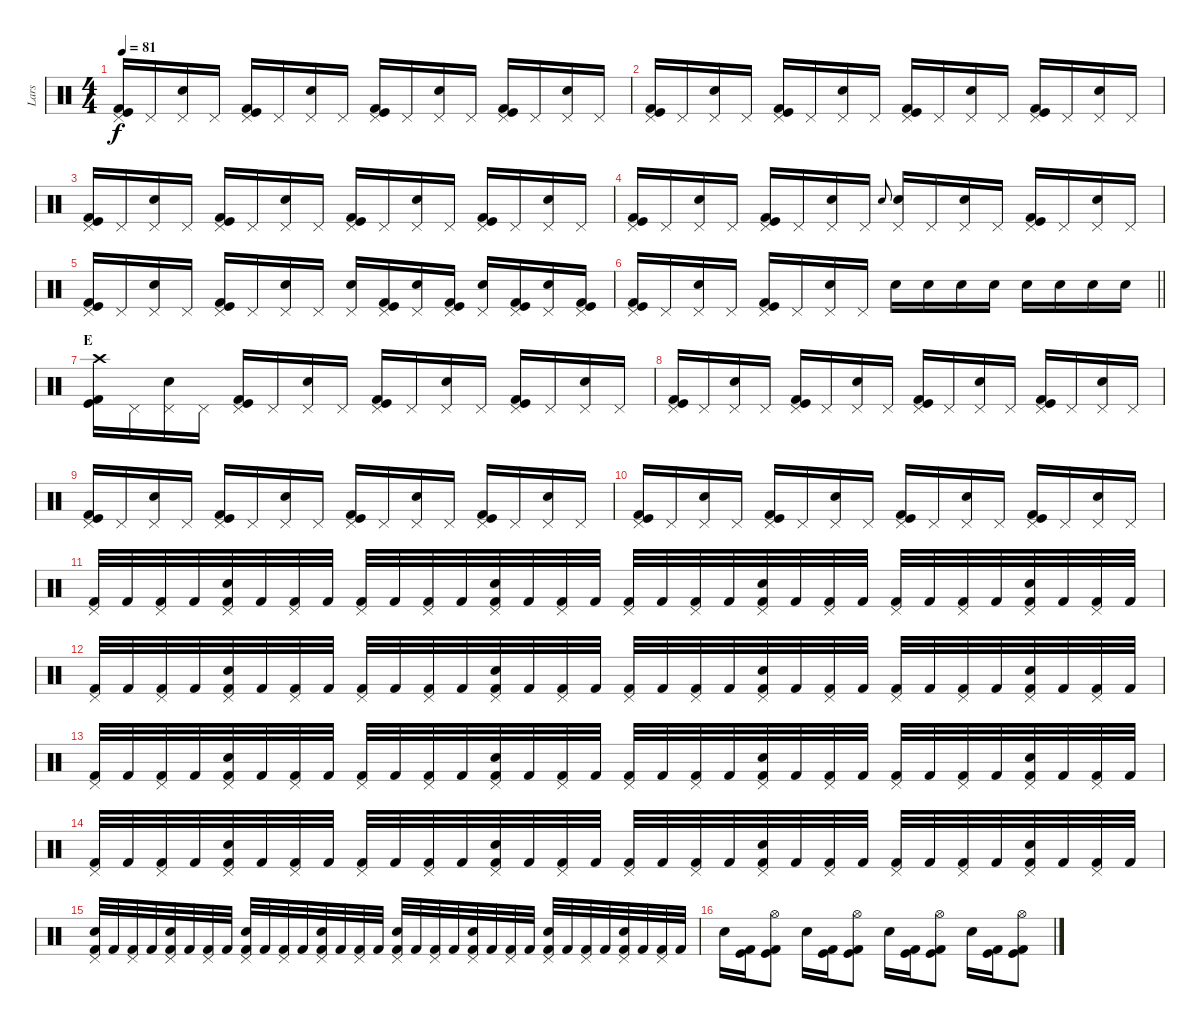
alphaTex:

\track ("Lars" "Lars") {instrument percussion}
\staff {score}
\articulation defaults
\ts (4 4)
\tempo 81
\clef neutral
\ks c
("Pedal Hi-Hat (hit)" "Kick (hit)" "Kick (hit) 2").16{dy f} "Pedal Hi-Hat (hit)".16 ("Pedal Hi-Hat (hit)" "Electric Snare (hit)").16 "Pedal Hi-Hat (hit)".16 ("Pedal Hi-Hat (hit)" "Kick (hit)" "Kick (hit) 2").16 "Pedal Hi-Hat (hit)".16 ("Pedal Hi-Hat (hit)" "Electric Snare (hit)").16 "Pedal Hi-Hat (hit)".16 ("Pedal Hi-Hat (hit)" "Kick (hit)" "Kick (hit) 2").16 "Pedal Hi-Hat (hit)".16 ("Pedal Hi-Hat (hit)" "Electric Snare (hit)").16 "Pedal Hi-Hat (hit)".16 ("Pedal Hi-Hat (hit)" "Kick (hit)" "Kick (hit) 2").16 "Pedal Hi-Hat (hit)".16 ("Pedal Hi-Hat (hit)" "Electric Snare (hit)").16 "Pedal Hi-Hat (hit)".16 |
("Pedal Hi-Hat (hit)" "Kick (hit)" "Kick (hit) 2").16 "Pedal Hi-Hat (hit)".16 ("Pedal Hi-Hat (hit)" "Electric Snare (hit)").16 "Pedal Hi-Hat (hit)".16 ("Pedal Hi-Hat (hit)" "Kick (hit)" "Kick (hit) 2").16 "Pedal Hi-Hat (hit)".16 ("Pedal Hi-Hat (hit)" "Electric Snare (hit)").16 "Pedal Hi-Hat (hit)".16 ("Pedal Hi-Hat (hit)" "Kick (hit)" "Kick (hit) 2").16 "Pedal Hi-Hat (hit)".16 ("Pedal Hi-Hat (hit)" "Electric Snare (hit)").16 "Pedal Hi-Hat (hit)".16 ("Pedal Hi-Hat (hit)" "Kick (hit)" "Kick (hit) 2").16 "Pedal Hi-Hat (hit)".16 ("Pedal Hi-Hat (hit)" "Electric Snare (hit)").16 "Pedal Hi-Hat (hit)".16 |
("Pedal Hi-Hat (hit)" "Kick (hit)" "Kick (hit) 2").16 "Pedal Hi-Hat (hit)".16 ("Pedal Hi-Hat (hit)" "Electric Snare (hit)").16 "Pedal Hi-Hat (hit)".16 ("Pedal Hi-Hat (hit)" "Kick (hit)" "Kick (hit) 2").16 "Pedal Hi-Hat (hit)".16 ("Pedal Hi-Hat (hit)" "Electric Snare (hit)").16 "Pedal Hi-Hat (hit)".16 ("Pedal Hi-Hat (hit)" "Kick (hit)" "Kick (hit) 2").16 "Pedal Hi-Hat (hit)".16 ("Pedal Hi-Hat (hit)" "Electric Snare (hit)").16 "Pedal Hi-Hat (hit)".16 ("Pedal Hi-Hat (hit)" "Kick (hit)" "Kick (hit) 2").16 "Pedal Hi-Hat (hit)".16 ("Pedal Hi-Hat (hit)" "Electric Snare (hit)").16 "Pedal Hi-Hat (hit)".16 |
("Pedal Hi-Hat (hit)" "Kick (hit)" "Kick (hit) 2").16 "Pedal Hi-Hat (hit)".16 ("Pedal Hi-Hat (hit)" "Electric Snare (hit)").16 "Pedal Hi-Hat (hit)".16 ("Pedal Hi-Hat (hit)" "Kick (hit)" "Kick (hit) 2").16 "Pedal Hi-Hat (hit)".16 ("Pedal Hi-Hat (hit)" "Electric Snare (hit)").16 "Pedal Hi-Hat (hit)".16 "Electric Snare (hit)".8{gr onbeat} ("Pedal Hi-Hat (hit)" "Electric Snare (hit)").16 "Pedal Hi-Hat (hit)".16 ("Pedal Hi-Hat (hit)" "Electric Snare (hit)").16 "Pedal Hi-Hat (hit)".16 ("Pedal Hi-Hat (hit)" "Kick (hit)" "Kick (hit) 2").16 "Pedal Hi-Hat (hit)".16 ("Pedal Hi-Hat (hit)" "Electric Snare (hit)").16 "Pedal Hi-Hat (hit)".16 |
("Pedal Hi-Hat (hit)" "Kick (hit)" "Kick (hit) 2").16 "Pedal Hi-Hat (hit)".16 ("Pedal Hi-Hat (hit)" "Electric Snare (hit)").16 "Pedal Hi-Hat (hit)".16 ("Pedal Hi-Hat (hit)" "Kick (hit)" "Kick (hit) 2").16 "Pedal Hi-Hat (hit)".16 ("Pedal Hi-Hat (hit)" "Electric Snare (hit)").16 "Pedal Hi-Hat (hit)".16 ("Pedal Hi-Hat (hit)" "Electric Snare (hit)").16 ("Pedal Hi-Hat (hit)" "Kick (hit)" "Kick (hit) 2").16 ("Pedal Hi-Hat (hit)" "Electric Snare (hit)").16 ("Pedal Hi-Hat (hit)" "Kick (hit)" "Kick (hit) 2").16 ("Pedal Hi-Hat (hit)" "Electric Snare (hit)").16 ("Pedal Hi-Hat (hit)" "Kick (hit)" "Kick (hit) 2").16 ("Pedal Hi-Hat (hit)" "Electric Snare (hit)").16 ("Pedal Hi-Hat (hit)" "Kick (hit)" "Kick (hit) 2").16 |
\barLineRight lightlight
("Pedal Hi-Hat (hit)" "Kick (hit)" "Kick (hit) 2").16 "Pedal Hi-Hat (hit)".16 ("Pedal Hi-Hat (hit)" "Electric Snare (hit)").16 "Pedal Hi-Hat (hit)".16 ("Pedal Hi-Hat (hit)" "Kick (hit)" "Kick (hit) 2").16 "Pedal Hi-Hat (hit)".16 ("Pedal Hi-Hat (hit)" "Electric Snare (hit)").16 "Pedal Hi-Hat (hit)".16 "Electric Snare (hit)".16 "Electric Snare (hit)".16 "Electric Snare (hit)".16 "Electric Snare (hit)".16 "Electric Snare (hit)".16 "Electric Snare (hit)".16 "Electric Snare (hit)".16 "Electric Snare (hit)".16 |
\section ("" "E")
("Crash high (hit)" "Kick (hit)" "Kick (hit) 2").16 "Pedal Hi-Hat (hit)".16 ("Pedal Hi-Hat (hit)" "Electric Snare (hit)").16 "Pedal Hi-Hat (hit)".16 ("Pedal Hi-Hat (hit)" "Kick (hit)" "Kick (hit) 2").16 "Pedal Hi-Hat (hit)".16 ("Pedal Hi-Hat (hit)" "Electric Snare (hit)").16 "Pedal Hi-Hat (hit)".16 ("Pedal Hi-Hat (hit)" "Kick (hit)" "Kick (hit) 2").16 "Pedal Hi-Hat (hit)".16 ("Pedal Hi-Hat (hit)" "Electric Snare (hit)").16 "Pedal Hi-Hat (hit)".16 ("Pedal Hi-Hat (hit)" "Kick (hit)" "Kick (hit) 2").16 "Pedal Hi-Hat (hit)".16 ("Pedal Hi-Hat (hit)" "Electric Snare (hit)").16 "Pedal Hi-Hat (hit)".16 |
("Pedal Hi-Hat (hit)" "Kick (hit)" "Kick (hit) 2").16 "Pedal Hi-Hat (hit)".16 ("Pedal Hi-Hat (hit)" "Electric Snare (hit)").16 "Pedal Hi-Hat (hit)".16 ("Pedal Hi-Hat (hit)" "Kick (hit)" "Kick (hit) 2").16 "Pedal Hi-Hat (hit)".16 ("Pedal Hi-Hat (hit)" "Electric Snare (hit)").16 "Pedal Hi-Hat (hit)".16 ("Pedal Hi-Hat (hit)" "Kick (hit)" "Kick (hit) 2").16 "Pedal Hi-Hat (hit)".16 ("Pedal Hi-Hat (hit)" "Electric Snare (hit)").16 "Pedal Hi-Hat (hit)".16 ("Pedal Hi-Hat (hit)" "Kick (hit)" "Kick (hit) 2").16 "Pedal Hi-Hat (hit)".16 ("Pedal Hi-Hat (hit)" "Electric Snare (hit)").16 "Pedal Hi-Hat (hit)".16 |
("Pedal Hi-Hat (hit)" "Kick (hit)" "Kick (hit) 2").16 "Pedal Hi-Hat (hit)".16 ("Pedal Hi-Hat (hit)" "Electric Snare (hit)").16 "Pedal Hi-Hat (hit)".16 ("Pedal Hi-Hat (hit)" "Kick (hit)" "Kick (hit) 2").16 "Pedal Hi-Hat (hit)".16 ("Pedal Hi-Hat (hit)" "Electric Snare (hit)").16 "Pedal Hi-Hat (hit)".16 ("Pedal Hi-Hat (hit)" "Kick (hit)" "Kick (hit) 2").16 "Pedal Hi-Hat (hit)".16 ("Pedal Hi-Hat (hit)" "Electric Snare (hit)").16 "Pedal Hi-Hat (hit)".16 ("Pedal Hi-Hat (hit)" "Kick (hit)" "Kick (hit) 2").16 "Pedal Hi-Hat (hit)".16 ("Pedal Hi-Hat (hit)" "Electric Snare (hit)").16 "Pedal Hi-Hat (hit)".16 |
("Pedal Hi-Hat (hit)" "Kick (hit)" "Kick (hit) 2").16 "Pedal Hi-Hat (hit)".16 ("Pedal Hi-Hat (hit)" "Electric Snare (hit)").16 "Pedal Hi-Hat (hit)".16 ("Pedal Hi-Hat (hit)" "Kick (hit)" "Kick (hit) 2").16 "Pedal Hi-Hat (hit)".16 ("Pedal Hi-Hat (hit)" "Electric Snare (hit)").16 "Pedal Hi-Hat (hit)".16 ("Pedal Hi-Hat (hit)" "Kick (hit)" "Kick (hit) 2").16 "Pedal Hi-Hat (hit)".16 ("Pedal Hi-Hat (hit)" "Electric Snare (hit)").16 "Pedal Hi-Hat (hit)".16 ("Pedal Hi-Hat (hit)" "Kick (hit)" "Kick (hit) 2").16 "Pedal Hi-Hat (hit)".16 ("Pedal Hi-Hat (hit)" "Electric Snare (hit)").16 "Pedal Hi-Hat (hit)".16 |
("Pedal Hi-Hat (hit)" "Kick (hit) 2").32 "Kick (hit) 2".32 ("Pedal Hi-Hat (hit)" "Kick (hit) 2").32 "Kick (hit) 2".32 ("Pedal Hi-Hat (hit)" "Electric Snare (hit)" "Kick (hit) 2").32 "Kick (hit) 2".32 ("Pedal Hi-Hat (hit)" "Kick (hit) 2").32 "Kick (hit) 2".32 ("Pedal Hi-Hat (hit)" "Kick (hit) 2").32 "Kick (hit) 2".32 ("Pedal Hi-Hat (hit)" "Kick (hit) 2").32 "Kick (hit) 2".32 ("Pedal Hi-Hat (hit)" "Electric Snare (hit)" "Kick (hit) 2").32 "Kick (hit) 2".32 ("Pedal Hi-Hat (hit)" "Kick (hit) 2").32 "Kick (hit) 2".32 ("Pedal Hi-Hat (hit)" "Kick (hit) 2").32 "Kick (hit) 2".32 ("Pedal Hi-Hat (hit)" "Kick (hit) 2").32 "Kick (hit) 2".32 ("Pedal Hi-Hat (hit)" "Electric Snare (hit)" "Kick (hit) 2").32 "Kick (hit) 2".32 ("Pedal Hi-Hat (hit)" "Kick (hit) 2").32 "Kick (hit) 2".32 ("Pedal Hi-Hat (hit)" "Kick (hit) 2").32 "Kick (hit) 2".32 ("Pedal Hi-Hat (hit)" "Kick (hit) 2").32 "Kick (hit) 2".32 ("Pedal Hi-Hat (hit)" "Electric Snare (hit)" "Kick (hit) 2").32 "Kick (hit) 2".32 ("Pedal Hi-Hat (hit)" "Kick (hit) 2").32 "Kick (hit) 2".32 |
("Pedal Hi-Hat (hit)" "Kick (hit) 2").32 "Kick (hit) 2".32 ("Pedal Hi-Hat (hit)" "Kick (hit) 2").32 "Kick (hit) 2".32 ("Pedal Hi-Hat (hit)" "Electric Snare (hit)" "Kick (hit) 2").32 "Kick (hit) 2".32 ("Pedal Hi-Hat (hit)" "Kick (hit) 2").32 "Kick (hit) 2".32 ("Pedal Hi-Hat (hit)" "Kick (hit) 2").32 "Kick (hit) 2".32 ("Pedal Hi-Hat (hit)" "Kick (hit) 2").32 "Kick (hit) 2".32 ("Pedal Hi-Hat (hit)" "Electric Snare (hit)" "Kick (hit) 2").32 "Kick (hit) 2".32 ("Pedal Hi-Hat (hit)" "Kick (hit) 2").32 "Kick (hit) 2".32 ("Pedal Hi-Hat (hit)" "Kick (hit) 2").32 "Kick (hit) 2".32 ("Pedal Hi-Hat (hit)" "Kick (hit) 2").32 "Kick (hit) 2".32 ("Pedal Hi-Hat (hit)" "Electric Snare (hit)" "Kick (hit) 2").32 "Kick (hit) 2".32 ("Pedal Hi-Hat (hit)" "Kick (hit) 2").32 "Kick (hit) 2".32 ("Pedal Hi-Hat (hit)" "Kick (hit) 2").32 "Kick (hit) 2".32 ("Pedal Hi-Hat (hit)" "Kick (hit) 2").32 "Kick (hit) 2".32 ("Pedal Hi-Hat (hit)" "Electric Snare (hit)" "Kick (hit) 2").32 "Kick (hit) 2".32 ("Pedal Hi-Hat (hit)" "Kick (hit) 2").32 "Kick (hit) 2".32 |
("Pedal Hi-Hat (hit)" "Kick (hit) 2").32 "Kick (hit) 2".32 ("Pedal Hi-Hat (hit)" "Kick (hit) 2").32 "Kick (hit) 2".32 ("Pedal Hi-Hat (hit)" "Electric Snare (hit)" "Kick (hit) 2").32 "Kick (hit) 2".32 ("Pedal Hi-Hat (hit)" "Kick (hit) 2").32 "Kick (hit) 2".32 ("Pedal Hi-Hat (hit)" "Kick (hit) 2").32 "Kick (hit) 2".32 ("Pedal Hi-Hat (hit)" "Kick (hit) 2").32 "Kick (hit) 2".32 ("Pedal Hi-Hat (hit)" "Electric Snare (hit)" "Kick (hit) 2").32 "Kick (hit) 2".32 ("Pedal Hi-Hat (hit)" "Kick (hit) 2").32 "Kick (hit) 2".32 ("Pedal Hi-Hat (hit)" "Kick (hit) 2").32 "Kick (hit) 2".32 ("Pedal Hi-Hat (hit)" "Kick (hit) 2").32 "Kick (hit) 2".32 ("Pedal Hi-Hat (hit)" "Electric Snare (hit)" "Kick (hit) 2").32 "Kick (hit) 2".32 ("Pedal Hi-Hat (hit)" "Kick (hit) 2").32 "Kick (hit) 2".32 ("Pedal Hi-Hat (hit)" "Kick (hit) 2").32 "Kick (hit) 2".32 ("Pedal Hi-Hat (hit)" "Kick (hit) 2").32 "Kick (hit) 2".32 ("Pedal Hi-Hat (hit)" "Electric Snare (hit)" "Kick (hit) 2").32 "Kick (hit) 2".32 ("Pedal Hi-Hat (hit)" "Kick (hit) 2").32 "Kick (hit) 2".32 |
("Pedal Hi-Hat (hit)" "Kick (hit) 2").32 "Kick (hit) 2".32 ("Pedal Hi-Hat (hit)" "Kick (hit) 2").32 "Kick (hit) 2".32 ("Pedal Hi-Hat (hit)" "Electric Snare (hit)" "Kick (hit) 2").32 "Kick (hit) 2".32 ("Pedal Hi-Hat (hit)" "Kick (hit) 2").32 "Kick (hit) 2".32 ("Pedal Hi-Hat (hit)" "Kick (hit) 2").32 "Kick (hit) 2".32 ("Pedal Hi-Hat (hit)" "Kick (hit) 2").32 "Kick (hit) 2".32 ("Pedal Hi-Hat (hit)" "Electric Snare (hit)" "Kick (hit) 2").32 "Kick (hit) 2".32 ("Pedal Hi-Hat (hit)" "Kick (hit) 2").32 "Kick (hit) 2".32 ("Pedal Hi-Hat (hit)" "Kick (hit) 2").32 "Kick (hit) 2".32 ("Pedal Hi-Hat (hit)" "Kick (hit) 2").32 "Kick (hit) 2".32 ("Pedal Hi-Hat (hit)" "Electric Snare (hit)" "Kick (hit) 2").32 "Kick (hit) 2".32 ("Pedal Hi-Hat (hit)" "Kick (hit) 2").32 "Kick (hit) 2".32 ("Pedal Hi-Hat (hit)" "Kick (hit) 2").32 "Kick (hit) 2".32 ("Pedal Hi-Hat (hit)" "Kick (hit) 2").32 "Kick (hit) 2".32 ("Pedal Hi-Hat (hit)" "Electric Snare (hit)" "Kick (hit) 2").32 "Kick (hit) 2".32 ("Pedal Hi-Hat (hit)" "Kick (hit) 2").32 "Kick (hit) 2".32 |
("Pedal Hi-Hat (hit)" "Electric Snare (hit)" "Kick (hit) 2").32 "Kick (hit) 2".32 ("Pedal Hi-Hat (hit)" "Kick (hit) 2").32 "Kick (hit) 2".32 ("Pedal Hi-Hat (hit)" "Electric Snare (hit)" "Kick (hit) 2").32 "Kick (hit) 2".32 ("Pedal Hi-Hat (hit)" "Kick (hit) 2").32 "Kick (hit) 2".32 ("Pedal Hi-Hat (hit)" "Electric Snare (hit)" "Kick (hit) 2").32 "Kick (hit) 2".32 ("Pedal Hi-Hat (hit)" "Kick (hit) 2").32 "Kick (hit) 2".32 ("Pedal Hi-Hat (hit)" "Electric Snare (hit)" "Kick (hit) 2").32 "Kick (hit) 2".32 ("Pedal Hi-Hat (hit)" "Kick (hit) 2").32 "Kick (hit) 2".32 ("Pedal Hi-Hat (hit)" "Electric Snare (hit)" "Kick (hit) 2").32 "Kick (hit) 2".32 ("Pedal Hi-Hat (hit)" "Kick (hit) 2").32 "Kick (hit) 2".32 ("Pedal Hi-Hat (hit)" "Electric Snare (hit)" "Kick (hit) 2").32 "Kick (hit) 2".32 ("Pedal Hi-Hat (hit)" "Kick (hit) 2").32 "Kick (hit) 2".32 ("Pedal Hi-Hat (hit)" "Electric Snare (hit)" "Kick (hit) 2").32 "Kick (hit) 2".32 ("Pedal Hi-Hat (hit)" "Kick (hit) 2").32 "Kick (hit) 2".32 ("Pedal Hi-Hat (hit)" "Electric Snare (hit)" "Kick (hit) 2").32 "Kick (hit) 2".32 ("Pedal Hi-Hat (hit)" "Kick (hit) 2").32 "Kick (hit) 2".32 |
"Electric Snare (hit)".16 ("Kick (hit)" "Kick (hit) 2").16 ("Hi-Hat (open)" "Kick (hit)" "Kick (hit) 2").8 "Electric Snare (hit)".16 ("Kick (hit)" "Kick (hit) 2").16 ("Hi-Hat (open)" "Kick (hit)" "Kick (hit) 2").8 "Electric Snare (hit)".16 ("Kick (hit)" "Kick (hit) 2").16 ("Hi-Hat (open)" "Kick (hit)" "Kick (hit) 2").8 "Electric Snare (hit)".16 ("Kick (hit)" "Kick (hit) 2").16 ("Hi-Hat (open)" "Kick (hit)" "Kick (hit) 2").8
